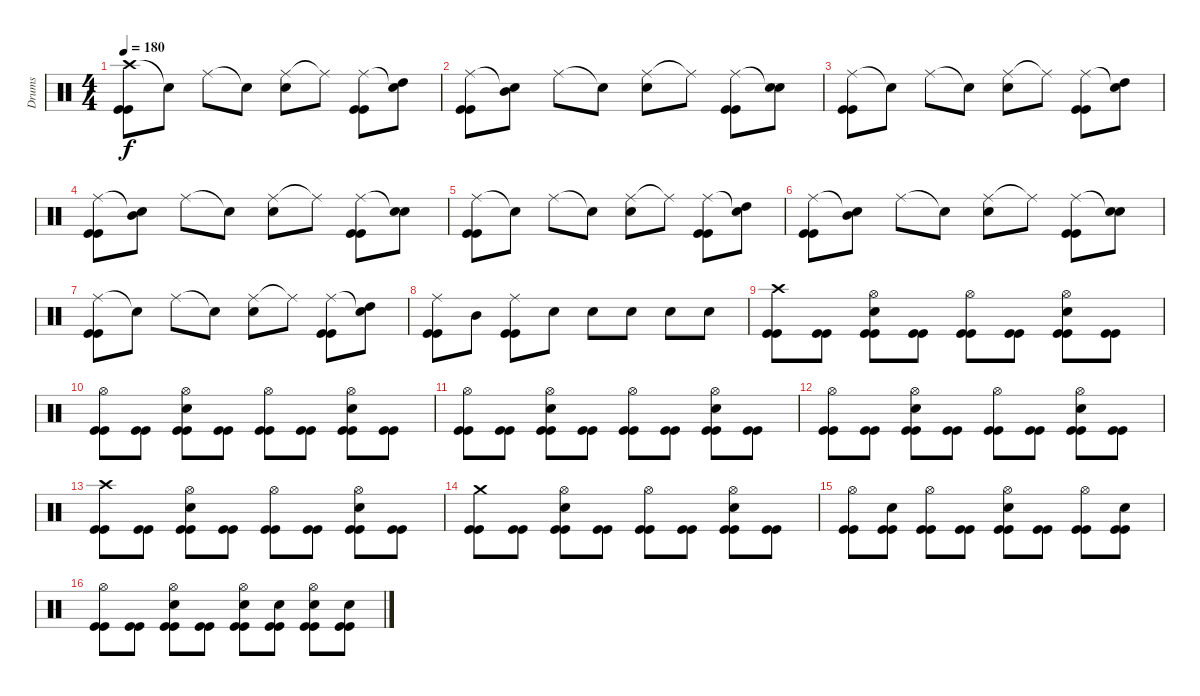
\track ("Drums" "Drums") {instrument percussion}
\staff {score}
\articulation defaults
\ts (4 4)
\tempo 180
\clef neutral
\ks c
("Crash high (hit)" "Kick (hit)" "Kick (hit)").8{dy f} "Snare (hit)"{t}.8 "Ride (middle)".8 "Snare (hit)"{t}.8 ("Ride (middle)" "Snare (hit) 2").8 "Ride (middle)"{t}.8 ("Ride (middle)" "Kick (hit)" "Kick (hit)").8 ("Snare (hit)"{t} "High Tom (hit)").8 |
("Ride (middle)" "Kick (hit)" "Kick (hit)").8 ("Snare (hit)"{t} "Mid Tom (hit)").8 "Ride (middle)".8 "Snare (hit)"{t}.8 ("Ride (middle)" "Snare (hit) 2").8 "Ride (middle)"{t}.8 ("Ride (middle)" "Kick (hit)" "Kick (hit)").8 ("Snare (hit)"{t} "Snare (hit) 2").8 |
("Ride (middle)" "Kick (hit)" "Kick (hit)").8 "Snare (hit)"{t}.8 "Ride (middle)".8 "Snare (hit)"{t}.8 ("Ride (middle)" "Snare (hit) 2").8 "Ride (middle)"{t}.8 ("Ride (middle)" "Kick (hit)" "Kick (hit)").8 ("Snare (hit)"{t} "High Tom (hit)").8 |
("Ride (middle)" "Kick (hit)" "Kick (hit)").8 ("Snare (hit)"{t} "Mid Tom (hit)").8 "Ride (middle)".8 "Snare (hit)"{t}.8 ("Ride (middle)" "Snare (hit) 2").8 "Ride (middle)"{t}.8 ("Ride (middle)" "Kick (hit)" "Kick (hit)").8 ("Snare (hit)"{t} "Snare (hit) 2").8 |
("Ride (middle)" "Kick (hit)" "Kick (hit)").8 "Snare (hit)"{t}.8 "Ride (middle)".8 "Snare (hit)"{t}.8 ("Ride (middle)" "Snare (hit) 2").8 "Ride (middle)"{t}.8 ("Ride (middle)" "Kick (hit)" "Kick (hit)").8 ("Snare (hit)"{t} "High Tom (hit)").8 |
("Ride (middle)" "Kick (hit)" "Kick (hit)").8 ("Snare (hit)"{t} "Mid Tom (hit)").8 "Ride (middle)".8 "Snare (hit)"{t}.8 ("Ride (middle)" "Snare (hit) 2").8 "Ride (middle)"{t}.8 ("Ride (middle)" "Kick (hit)" "Kick (hit)").8 ("Snare (hit)"{t} "Snare (hit) 2").8 |
("Ride (middle)" "Kick (hit)" "Kick (hit)").8 "Snare (hit)"{t}.8 "Ride (middle)".8 "Snare (hit)"{t}.8 ("Ride (middle)" "Snare (hit) 2").8 "Ride (middle)"{t}.8 ("Ride (middle)" "Kick (hit)" "Kick (hit)").8 ("Snare (hit)"{t} "High Tom (hit)").8 |
("Ride (middle)" "Kick (hit)" "Kick (hit)").8 "Mid Tom (hit)".8 ("Ride (middle)" "Kick (hit)" "Kick (hit)").8 "Snare (hit) 2".8 "Snare (hit) 2".8 "Snare (hit) 2".8 "Snare (hit) 2".8 "Snare (hit) 2".8 |
("Crash high (hit)" "Kick (hit)" "Kick (hit)").8 ("Kick (hit)" "Kick (hit)").8 ("Hi-Hat (open)" "Kick (hit)" "Kick (hit)" "Snare (hit) 2").8 ("Kick (hit)" "Kick (hit)").8 ("Hi-Hat (open)" "Kick (hit)" "Kick (hit)").8 ("Kick (hit)" "Kick (hit)").8 ("Hi-Hat (open)" "Kick (hit)" "Kick (hit)" "Snare (hit) 2").8 ("Kick (hit)" "Kick (hit)").8 |
("Hi-Hat (open)" "Kick (hit)" "Kick (hit)").8 ("Kick (hit)" "Kick (hit)").8 ("Hi-Hat (open)" "Kick (hit)" "Kick (hit)" "Snare (hit) 2").8 ("Kick (hit)" "Kick (hit)").8 ("Hi-Hat (open)" "Kick (hit)" "Kick (hit)").8 ("Kick (hit)" "Kick (hit)").8 ("Hi-Hat (open)" "Kick (hit)" "Kick (hit)" "Snare (hit) 2").8 ("Kick (hit)" "Kick (hit)").8 |
("Hi-Hat (open)" "Kick (hit)" "Kick (hit)").8 ("Kick (hit)" "Kick (hit)").8 ("Hi-Hat (open)" "Kick (hit)" "Kick (hit)" "Snare (hit) 2").8 ("Kick (hit)" "Kick (hit)").8 ("Hi-Hat (open)" "Kick (hit)" "Kick (hit)").8 ("Kick (hit)" "Kick (hit)").8 ("Hi-Hat (open)" "Kick (hit)" "Kick (hit)" "Snare (hit) 2").8 ("Kick (hit)" "Kick (hit)").8 |
("Hi-Hat (open)" "Kick (hit)" "Kick (hit)").8 ("Kick (hit)" "Kick (hit)").8 ("Hi-Hat (open)" "Kick (hit)" "Kick (hit)" "Snare (hit) 2").8 ("Kick (hit)" "Kick (hit)").8 ("Hi-Hat (open)" "Kick (hit)" "Kick (hit)").8 ("Kick (hit)" "Kick (hit)").8 ("Hi-Hat (open)" "Kick (hit)" "Kick (hit)" "Snare (hit) 2").8 ("Kick (hit)" "Kick (hit)").8 |
("Crash high (hit)" "Kick (hit)" "Kick (hit)").8 ("Kick (hit)" "Kick (hit)").8 ("Hi-Hat (open)" "Kick (hit)" "Kick (hit)" "Snare (hit) 2").8 ("Kick (hit)" "Kick (hit)").8 ("Hi-Hat (open)" "Kick (hit)" "Kick (hit)").8 ("Kick (hit)" "Kick (hit)").8 ("Hi-Hat (open)" "Kick (hit)" "Kick (hit)" "Snare (hit) 2").8 ("Kick (hit)" "Kick (hit)").8 |
("Crash medium (hit)" "Kick (hit)" "Kick (hit)").8 ("Kick (hit)" "Kick (hit)").8 ("Hi-Hat (open)" "Kick (hit)" "Kick (hit)" "Snare (hit) 2").8 ("Kick (hit)" "Kick (hit)").8 ("Hi-Hat (open)" "Kick (hit)" "Kick (hit)").8 ("Kick (hit)" "Kick (hit)").8 ("Hi-Hat (open)" "Kick (hit)" "Kick (hit)" "Snare (hit) 2").8 ("Kick (hit)" "Kick (hit)").8 |
("Hi-Hat (open)" "Kick (hit)" "Kick (hit)").8 ("Kick (hit)" "Kick (hit)" "Snare (hit) 2").8 ("Hi-Hat (open)" "Kick (hit)" "Kick (hit)").8 ("Kick (hit)" "Kick (hit)").8 ("Hi-Hat (open)" "Kick (hit)" "Kick (hit)" "Snare (hit) 2").8 ("Kick (hit)" "Kick (hit)").8 ("Hi-Hat (open)" "Kick (hit)" "Kick (hit)").8 ("Kick (hit)" "Kick (hit)" "Snare (hit) 2").8 |
("Hi-Hat (open)" "Kick (hit)" "Kick (hit)").8 ("Kick (hit)" "Kick (hit)").8 ("Hi-Hat (open)" "Kick (hit)" "Kick (hit)" "Snare (hit) 2").8 ("Kick (hit)" "Kick (hit)").8 ("Hi-Hat (open)" "Kick (hit)" "Kick (hit)" "Snare (hit) 2").8 ("Kick (hit)" "Kick (hit)" "Snare (hit) 2").8 ("Hi-Hat (open)" "Kick (hit)" "Kick (hit)" "Snare (hit) 2").8 ("Kick (hit)" "Kick (hit)" "Snare (hit) 2").8
